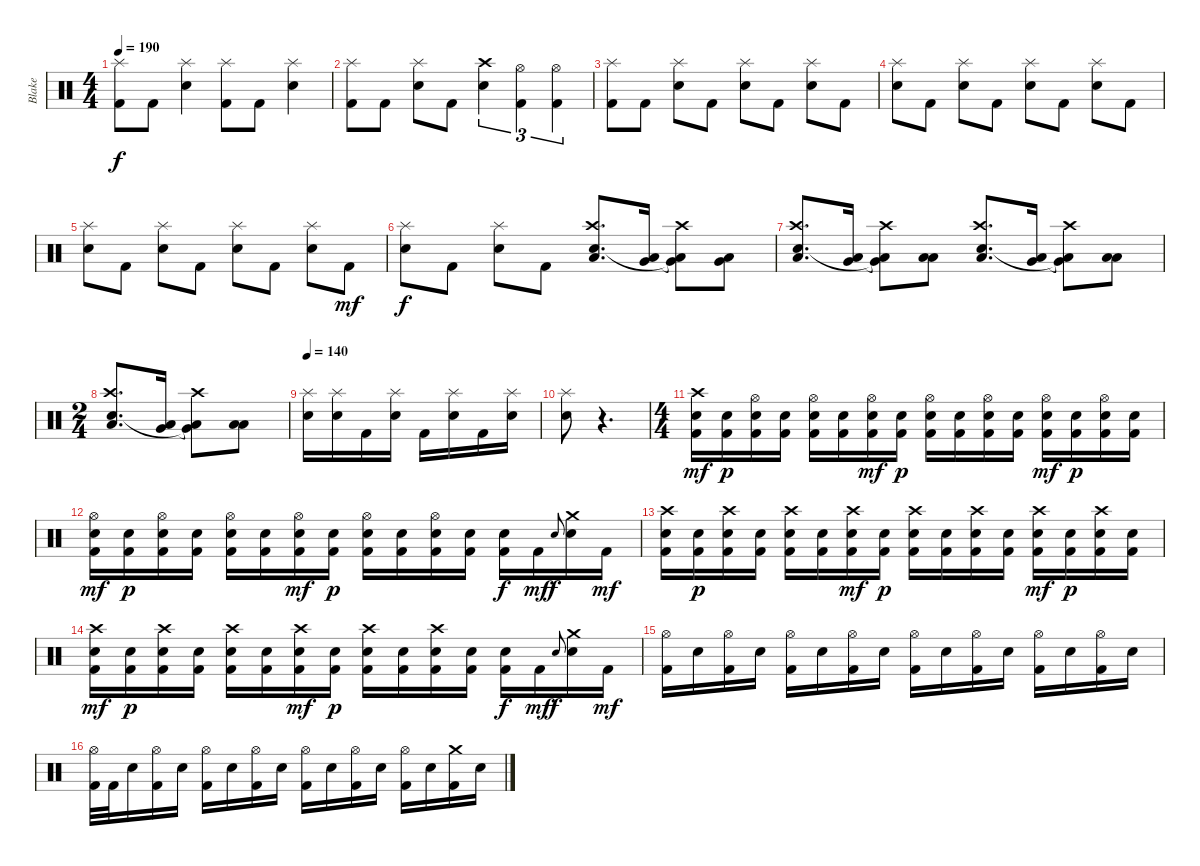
\track ("Blake" "Blake") {instrument percussion}
\staff {score}
\articulation defaults
\ts (4 4)
\tempo 190
\clef neutral
\ks c
("Splash (hit)" "Kick (hit) 2").8{dy f} "Kick (hit) 2".8 ("Splash (hit)" "Snare (hit) 2").4 ("Splash (hit)" "Kick (hit) 2").8 "Kick (hit) 2".8 ("Splash (hit)" "Snare (hit) 2").4 |
("Splash (hit)" "Kick (hit) 2").8 "Kick (hit) 2".8 ("Splash (hit)" "Snare (hit) 2").8 "Kick (hit) 2".8 ("Crash high (hit)" "Snare (hit) 2").4{tu (3 2)} ("Hi-Hat (open)" "Kick (hit) 2").4{tu (3 2)} ("Hi-Hat (open)" "Kick (hit) 2").4{tu (3 2)} |
("Splash (hit)" "Kick (hit) 2").8 "Kick (hit) 2".8 ("Splash (hit)" "Snare (hit) 2").8 "Kick (hit) 2".8 ("Splash (hit)" "Snare (hit) 2").8 "Kick (hit) 2".8 ("Splash (hit)" "Snare (hit) 2").8 "Kick (hit) 2".8 |
("Splash (hit)" "Snare (hit) 2").8 "Kick (hit) 2".8 ("Splash (hit)" "Snare (hit) 2").8 "Kick (hit) 2".8 ("Splash (hit)" "Snare (hit) 2").8 "Kick (hit) 2".8 ("Splash (hit)" "Snare (hit) 2").8 "Kick (hit) 2".8 |
("Splash (hit)" "Snare (hit) 2").8 "Kick (hit) 2".8 ("Splash (hit)" "Snare (hit) 2").8 "Kick (hit) 2".8 ("Splash (hit)" "Snare (hit) 2").8 "Kick (hit) 2".8 ("Splash (hit)" "Snare (hit) 2").8 "Kick (hit) 2".8{dy mf} |
("Splash (hit)" "Snare (hit) 2").8{dy f} "Kick (hit) 2".8 ("Splash (hit)" "Snare (hit) 2").8 "Kick (hit) 2".8 ("Crash high (hit)" "Low Tom (hit)" "Snare (hit) 2").8{d} ("Low Tom (hit)" "Very Low Tom (hit)").16 ("Crash high (hit)" "Low Tom (hit)"{t} "Very Low Tom (hit)"{t}).8 ("Very Low Tom (hit)" "Low Tom (hit)").8 |
("Crash high (hit)" "Low Tom (hit)" "Snare (hit) 2").8{d} ("Low Tom (hit)" "Very Low Tom (hit)").16 ("Crash high (hit)" "Low Tom (hit)"{t} "Very Low Tom (hit)"{t}).8 ("Low Floor Tom (hit)" "Low Tom (hit)").8 ("Crash high (hit)" "Low Tom (hit)" "Snare (hit) 2").8{d} ("Low Tom (hit)" "Very Low Tom (hit)").16 ("Crash high (hit)" "Low Tom (hit)"{t} "Very Low Tom (hit)"{t}).8 ("Low Floor Tom (hit)" "Low Tom (hit)").8 |
\ts (2 4)
("Crash high (hit)" "Low Tom (hit)" "Snare (hit) 2").8{d} ("Low Tom (hit)" "Very Low Tom (hit)").16 ("Crash high (hit)" "Low Tom (hit)"{t} "Very Low Tom (hit)"{t}).8 ("Low Floor Tom (hit)" "Low Tom (hit)").8 |
\tempo 140
("Splash (hit)" "Snare (hit) 2").16 ("Splash (hit)" "Snare (hit) 2").16 "Kick (hit) 2".16 ("Splash (hit)" "Snare (hit) 2").16 "Kick (hit) 2".16 ("Splash (hit)" "Snare (hit) 2").16 "Kick (hit) 2".16 ("Splash (hit)" "Snare (hit) 2").16 |
("Splash (hit)" "Snare (hit) 2").8 r.4{d} |
\ts (4 4)
("Crash high (hit)" "Snare (hit) 2" "Kick (hit) 2").16{dy mf} ("Snare (hit) 2" "Kick (hit) 2").16{dy p} ("Hi-Hat (open)" "Snare (hit) 2" "Kick (hit) 2").16 ("Snare (hit) 2" "Kick (hit) 2").16 ("Hi-Hat (open)" "Snare (hit) 2" "Kick (hit) 2").16 ("Snare (hit) 2" "Kick (hit) 2").16 ("Hi-Hat (open)" "Snare (hit) 2" "Kick (hit) 2").16{dy mf} ("Snare (hit) 2" "Kick (hit) 2").16{dy p} ("Hi-Hat (open)" "Snare (hit) 2" "Kick (hit) 2").16 ("Snare (hit) 2" "Kick (hit) 2").16 ("Hi-Hat (open)" "Snare (hit) 2" "Kick (hit) 2").16 ("Snare (hit) 2" "Kick (hit) 2").16 ("Hi-Hat (open)" "Snare (hit) 2" "Kick (hit) 2").16{dy mf} ("Snare (hit) 2" "Kick (hit) 2").16{dy p} ("Hi-Hat (open)" "Snare (hit) 2" "Kick (hit) 2").16 ("Snare (hit) 2" "Kick (hit) 2").16 |
("Hi-Hat (open)" "Snare (hit) 2" "Kick (hit) 2").16{dy mf} ("Snare (hit) 2" "Kick (hit) 2").16{dy p} ("Hi-Hat (open)" "Snare (hit) 2" "Kick (hit) 2").16 ("Snare (hit) 2" "Kick (hit) 2").16 ("Hi-Hat (open)" "Snare (hit) 2" "Kick (hit) 2").16 ("Snare (hit) 2" "Kick (hit) 2").16 ("Hi-Hat (open)" "Snare (hit) 2" "Kick (hit) 2").16{dy mf} ("Snare (hit) 2" "Kick (hit) 2").16{dy p} ("Hi-Hat (open)" "Snare (hit) 2" "Kick (hit) 2").16 ("Snare (hit) 2" "Kick (hit) 2").16 ("Hi-Hat (open)" "Snare (hit) 2" "Kick (hit) 2").16 ("Snare (hit) 2" "Kick (hit) 2").16 ("Snare (hit) 2" "Kick (hit) 2").16{dy f} "Kick (hit) 2".16{dy mf} "Snare (hit) 2".8{gr onbeat dy f} ("Crash medium (hit)" "Snare (hit) 2").16 "Kick (hit) 2".16{dy mf} |
("Crash high (hit)" "Snare (hit) 2" "Kick (hit) 2").16 ("Snare (hit) 2" "Kick (hit) 2").16{dy p} ("Crash high (hit)" "Snare (hit) 2" "Kick (hit) 2").16 ("Snare (hit) 2" "Kick (hit) 2").16 ("Crash high (hit)" "Snare (hit) 2" "Kick (hit) 2").16 ("Snare (hit) 2" "Kick (hit) 2").16 ("Crash high (hit)" "Snare (hit) 2" "Kick (hit) 2").16{dy mf} ("Snare (hit) 2" "Kick (hit) 2").16{dy p} ("Crash high (hit)" "Snare (hit) 2" "Kick (hit) 2").16 ("Snare (hit) 2" "Kick (hit) 2").16 ("Crash high (hit)" "Snare (hit) 2" "Kick (hit) 2").16 ("Snare (hit) 2" "Kick (hit) 2").16 ("Crash high (hit)" "Snare (hit) 2" "Kick (hit) 2").16{dy mf} ("Snare (hit) 2" "Kick (hit) 2").16{dy p} ("Crash high (hit)" "Snare (hit) 2" "Kick (hit) 2").16 ("Snare (hit) 2" "Kick (hit) 2").16 |
("Crash high (hit)" "Snare (hit) 2" "Kick (hit) 2").16{dy mf} ("Snare (hit) 2" "Kick (hit) 2").16{dy p} ("Crash high (hit)" "Snare (hit) 2" "Kick (hit) 2").16 ("Snare (hit) 2" "Kick (hit) 2").16 ("Crash high (hit)" "Snare (hit) 2" "Kick (hit) 2").16 ("Snare (hit) 2" "Kick (hit) 2").16 ("Crash high (hit)" "Snare (hit) 2" "Kick (hit) 2").16{dy mf} ("Snare (hit) 2" "Kick (hit) 2").16{dy p} ("Crash high (hit)" "Snare (hit) 2" "Kick (hit) 2").16 ("Snare (hit) 2" "Kick (hit) 2").16 ("Crash high (hit)" "Snare (hit) 2" "Kick (hit) 2").16 ("Snare (hit) 2" "Kick (hit) 2").16 ("Snare (hit) 2" "Kick (hit) 2").16{dy f} "Kick (hit) 2".16{dy mf} "Snare (hit) 2".8{gr onbeat dy f} ("Crash medium (hit)" "Snare (hit) 2").16 "Kick (hit) 2".16{dy mf} |
("Hi-Hat (open)" "Kick (hit) 2").16 "Snare (hit) 2".16 ("Hi-Hat (open)" "Kick (hit) 2").16 "Snare (hit) 2".16 ("Hi-Hat (open)" "Kick (hit) 2").16 "Snare (hit) 2".16 ("Hi-Hat (open)" "Kick (hit) 2").16 "Snare (hit) 2".16 ("Hi-Hat (open)" "Kick (hit) 2").16 "Snare (hit) 2".16 ("Hi-Hat (open)" "Kick (hit) 2").16 "Snare (hit) 2".16 ("Hi-Hat (open)" "Kick (hit) 2").16 "Snare (hit) 2".16 ("Hi-Hat (open)" "Kick (hit) 2").16 "Snare (hit) 2".16 |
("Hi-Hat (open)" "Kick (hit) 2").32 "Kick (hit) 2".32 "Snare (hit) 2".16 ("Hi-Hat (open)" "Kick (hit) 2").16 "Snare (hit) 2".16 ("Hi-Hat (open)" "Kick (hit) 2").16 "Snare (hit) 2".16 ("Hi-Hat (open)" "Kick (hit) 2").16 "Snare (hit) 2".16 ("Hi-Hat (open)" "Kick (hit) 2").16 "Snare (hit) 2".16 ("Hi-Hat (open)" "Kick (hit) 2").16 "Snare (hit) 2".16 ("Hi-Hat (open)" "Kick (hit) 2").16 "Snare (hit) 2".16 ("Crash medium (hit)" "Kick (hit) 2").16 "Snare (hit) 2".16
